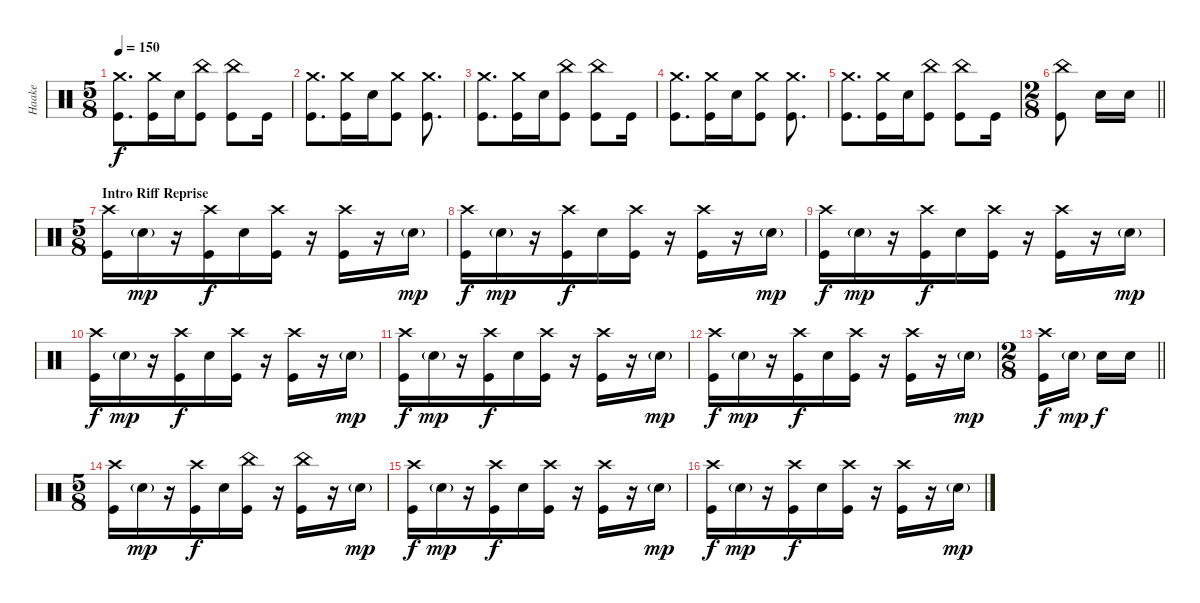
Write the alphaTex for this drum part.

\track ("Haake" "Haake") {instrument percussion}
\staff {score}
\articulation defaults
\ts (5 8)
\tempo 150
\clef neutral
\ks c
("Crash medium (hit)" "Kick (hit)").8{d dy f} ("Crash medium (hit)" "Kick (hit)").16 "Snare (hit) 2".16 ("China (hit)" "Kick (hit)").8 ("China (hit)" "Kick (hit)").8 "Kick (hit)".16 |
("Crash medium (hit)" "Kick (hit)").8{d} ("Crash medium (hit)" "Kick (hit)").16 "Snare (hit) 2".16 ("Crash medium (hit)" "Kick (hit)").8 ("Crash medium (hit)" "Kick (hit)").8{d} |
("Crash medium (hit)" "Kick (hit)").8{d} ("Crash medium (hit)" "Kick (hit)").16 "Snare (hit) 2".16 ("China (hit)" "Kick (hit)").8 ("China (hit)" "Kick (hit)").8 "Kick (hit)".16 |
("Crash medium (hit)" "Kick (hit)").8{d} ("Crash medium (hit)" "Kick (hit)").16 "Snare (hit) 2".16 ("Crash medium (hit)" "Kick (hit)").8 ("Crash medium (hit)" "Kick (hit)").8{d} |
("Crash medium (hit)" "Kick (hit)").8{d} ("Crash medium (hit)" "Kick (hit)").16 "Snare (hit) 2".16 ("China (hit)" "Kick (hit)").8 ("China (hit)" "Kick (hit)").8 "Kick (hit)".16 |
\ts (2 8)
\barLineRight lightlight
("China (hit)" "Kick (hit)").8 "Snare (hit) 2".16 "Snare (hit) 2".16 |
\ts (5 8)
\section ("" "Intro Riff Reprise")
("Crash high (hit)" "Kick (hit)").16 "Snare (hit) 2"{g}.16{dy mp} r.16 ("Crash high (hit)" "Kick (hit)").16{dy f} "Snare (hit) 2".16 ("Crash high (hit)" "Kick (hit)").16 r.16 ("Crash high (hit)" "Kick (hit)").16 r.16 "Snare (hit) 2"{g}.16{dy mp} |
("Crash high (hit)" "Kick (hit)").16{dy f} "Snare (hit) 2"{g}.16{dy mp} r.16 ("Crash high (hit)" "Kick (hit)").16{dy f} "Snare (hit) 2".16 ("Crash high (hit)" "Kick (hit)").16 r.16 ("Crash high (hit)" "Kick (hit)").16 r.16 "Snare (hit) 2"{g}.16{dy mp} |
("Crash high (hit)" "Kick (hit)").16{dy f} "Snare (hit) 2"{g}.16{dy mp} r.16 ("Crash high (hit)" "Kick (hit)").16{dy f} "Snare (hit) 2".16 ("Crash high (hit)" "Kick (hit)").16 r.16 ("Crash high (hit)" "Kick (hit)").16 r.16 "Snare (hit) 2"{g}.16{dy mp} |
("Crash high (hit)" "Kick (hit)").16{dy f} "Snare (hit) 2"{g}.16{dy mp} r.16 ("Crash high (hit)" "Kick (hit)").16{dy f} "Snare (hit) 2".16 ("Crash high (hit)" "Kick (hit)").16 r.16 ("Crash high (hit)" "Kick (hit)").16 r.16 "Snare (hit) 2"{g}.16{dy mp} |
("Crash high (hit)" "Kick (hit)").16{dy f} "Snare (hit) 2"{g}.16{dy mp} r.16 ("Crash high (hit)" "Kick (hit)").16{dy f} "Snare (hit) 2".16 ("Crash high (hit)" "Kick (hit)").16 r.16 ("Crash high (hit)" "Kick (hit)").16 r.16 "Snare (hit) 2"{g}.16{dy mp} |
("Crash high (hit)" "Kick (hit)").16{dy f} "Snare (hit) 2"{g}.16{dy mp} r.16 ("Crash high (hit)" "Kick (hit)").16{dy f} "Snare (hit) 2".16 ("Crash high (hit)" "Kick (hit)").16 r.16 ("Crash high (hit)" "Kick (hit)").16 r.16 "Snare (hit) 2"{g}.16{dy mp} |
\ts (2 8)
\barLineRight lightlight
("Crash high (hit)" "Kick (hit)").16{dy f} "Snare (hit) 2"{g}.16{dy mp} "Snare (hit) 2".16{dy f} "Snare (hit) 2".16 |
\ts (5 8)
("Crash high (hit)" "Kick (hit)").16 "Snare (hit) 2"{g}.16{dy mp} r.16 ("Crash high (hit)" "Kick (hit)").16{dy f} "Snare (hit) 2".16 ("China (hit)" "Kick (hit)").16 r.16 ("China (hit)" "Kick (hit)").16 r.16 "Snare (hit) 2"{g}.16{dy mp} |
("Crash high (hit)" "Kick (hit)").16{dy f} "Snare (hit) 2"{g}.16{dy mp} r.16 ("Crash high (hit)" "Kick (hit)").16{dy f} "Snare (hit) 2".16 ("Crash high (hit)" "Kick (hit)").16 r.16 ("Crash high (hit)" "Kick (hit)").16 r.16 "Snare (hit) 2"{g}.16{dy mp} |
("Crash high (hit)" "Kick (hit)").16{dy f} "Snare (hit) 2"{g}.16{dy mp} r.16 ("Crash high (hit)" "Kick (hit)").16{dy f} "Snare (hit) 2".16 ("Crash high (hit)" "Kick (hit)").16 r.16 ("Crash high (hit)" "Kick (hit)").16 r.16 "Snare (hit) 2"{g}.16{dy mp}
